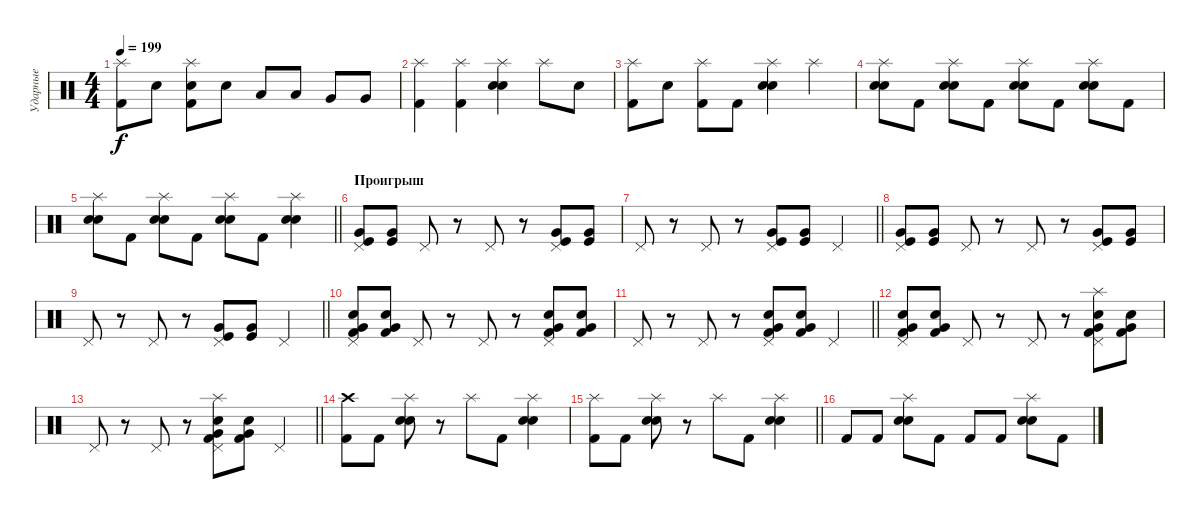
\track ("Ударные" "Ударные") {instrument percussion}
\staff {score}
\articulation defaults
\ts (4 4)
\tempo 199
\clef neutral
\ks c
("Splash (hit)" "Kick (hit) 2").8{dy f} "Electric Snare (hit)".8 ("Splash (hit)" "Electric Snare (hit)" "Kick (hit) 2").8 "Electric Snare (hit)".8 "Low Tom (hit)".8 "Low Tom (hit)".8 "Very Low Tom (hit)".8 "Very Low Tom (hit)".8 |
("Splash (hit)" "Kick (hit) 2").4 ("Splash (hit)" "Kick (hit) 2").4 ("Splash (hit)" "Electric Snare (hit)" "Snare (hit) 2").4 "Splash (hit)".8 "Electric Snare (hit)".8 |
("Splash (hit)" "Kick (hit) 2").8 "Electric Snare (hit)".8 ("Splash (hit)" "Kick (hit) 2").8 "Kick (hit) 2".8 ("Splash (hit)" "Electric Snare (hit)" "Snare (hit) 2").4 "Splash (hit)".4 |
("Splash (hit)" "Electric Snare (hit)" "Snare (hit) 2").8 "Kick (hit) 2".8 ("Splash (hit)" "Electric Snare (hit)" "Snare (hit) 2").8 "Kick (hit) 2".8 ("Splash (hit)" "Electric Snare (hit)" "Snare (hit) 2").8 "Kick (hit) 2".8 ("Splash (hit)" "Electric Snare (hit)" "Snare (hit) 2").8 "Kick (hit) 2".8 |
\barLineRight lightlight
("Splash (hit)" "Electric Snare (hit)" "Snare (hit) 2").8 "Kick (hit) 2".8 ("Splash (hit)" "Electric Snare (hit)" "Snare (hit) 2").8 "Kick (hit) 2".8 ("Splash (hit)" "Electric Snare (hit)" "Snare (hit) 2").8 "Kick (hit) 2".8 ("Splash (hit)" "Electric Snare (hit)" "Snare (hit) 2").4 |
\section ("" "Проигрыш")
("Pedal Hi-Hat (hit)" "Very Low Tom (hit)" "Kick (hit)").8 ("Very Low Tom (hit)" "Kick (hit)").8 "Pedal Hi-Hat (hit)".8 r.8 "Pedal Hi-Hat (hit)".8 r.8 ("Pedal Hi-Hat (hit)" "Very Low Tom (hit)" "Kick (hit)").8 ("Very Low Tom (hit)" "Kick (hit)").8 |
\barLineRight lightlight "Pedal Hi-Hat (hit)".8
r.8 "Pedal Hi-Hat (hit)".8 r.8 ("Pedal Hi-Hat (hit)" "Very Low Tom (hit)" "Kick (hit)").8 ("Very Low Tom (hit)" "Kick (hit)").8 "Pedal Hi-Hat (hit)".4 |
("Pedal Hi-Hat (hit)" "Very Low Tom (hit)" "Kick (hit)").8 ("Very Low Tom (hit)" "Kick (hit)").8 "Pedal Hi-Hat (hit)".8 r.8 "Pedal Hi-Hat (hit)".8 r.8 ("Pedal Hi-Hat (hit)" "Very Low Tom (hit)" "Kick (hit)").8 ("Very Low Tom (hit)" "Kick (hit)").8 |
\barLineRight lightlight "Pedal Hi-Hat (hit)".8
r.8 "Pedal Hi-Hat (hit)".8 r.8 ("Pedal Hi-Hat (hit)" "Very Low Tom (hit)" "Kick (hit)").8 ("Very Low Tom (hit)" "Kick (hit)").8 "Pedal Hi-Hat (hit)".4 |
("Pedal Hi-Hat (hit)" "Electric Snare (hit)" "Very Low Tom (hit)" "Kick (hit) 2").8 ("Electric Snare (hit)" "Very Low Tom (hit)" "Kick (hit) 2").8 "Pedal Hi-Hat (hit)".8 r.8 "Pedal Hi-Hat (hit)".8 r.8 ("Pedal Hi-Hat (hit)" "Electric Snare (hit)" "Very Low Tom (hit)" "Kick (hit) 2").8 ("Electric Snare (hit)" "Very Low Tom (hit)" "Kick (hit) 2").8 |
\barLineRight lightlight "Pedal Hi-Hat (hit)".8
r.8 "Pedal Hi-Hat (hit)".8 r.8 ("Pedal Hi-Hat (hit)" "Electric Snare (hit)" "Very Low Tom (hit)" "Kick (hit) 2").8 ("Electric Snare (hit)" "Very Low Tom (hit)" "Kick (hit) 2").8 "Pedal Hi-Hat (hit)".4 |
("Pedal Hi-Hat (hit)" "Electric Snare (hit)" "Very Low Tom (hit)" "Kick (hit) 2").8 ("Electric Snare (hit)" "Very Low Tom (hit)" "Kick (hit) 2").8 "Pedal Hi-Hat (hit)".8 r.8 "Pedal Hi-Hat (hit)".8 r.8 ("Splash (hit)" "Pedal Hi-Hat (hit)" "Electric Snare (hit)" "Very Low Tom (hit)" "Kick (hit) 2").8 ("Electric Snare (hit)" "Very Low Tom (hit)" "Kick (hit) 2").8 |
\barLineRight lightlight "Pedal Hi-Hat (hit)".8
r.8 "Pedal Hi-Hat (hit)".8 r.8 ("Splash (hit)" "Pedal Hi-Hat (hit)" "Electric Snare (hit)" "Very Low Tom (hit)" "Kick (hit) 2").8 ("Electric Snare (hit)" "Very Low Tom (hit)" "Kick (hit) 2").8 "Pedal Hi-Hat (hit)".4 |
("Crash high (hit)" "Kick (hit) 2").8 "Kick (hit) 2".8 ("Splash (hit)" "Electric Snare (hit)" "Snare (hit) 2").8 r.8 "Splash (hit)".8 "Kick (hit) 2".8 ("Splash (hit)" "Electric Snare (hit)" "Snare (hit) 2").4 |
\barLineRight lightlight
("Splash (hit)" "Kick (hit) 2").8 "Kick (hit) 2".8 ("Splash (hit)" "Electric Snare (hit)" "Snare (hit) 2").8 r.8 "Splash (hit)".8 "Kick (hit) 2".8 ("Splash (hit)" "Electric Snare (hit)" "Snare (hit) 2").4 |
"Kick (hit) 2".8 "Kick (hit) 2".8 ("Splash (hit)" "Electric Snare (hit)" "Snare (hit) 2").8 "Kick (hit) 2".8 "Kick (hit) 2".8 "Kick (hit) 2".8 ("Splash (hit)" "Electric Snare (hit)" "Snare (hit) 2").8 "Kick (hit) 2".8
